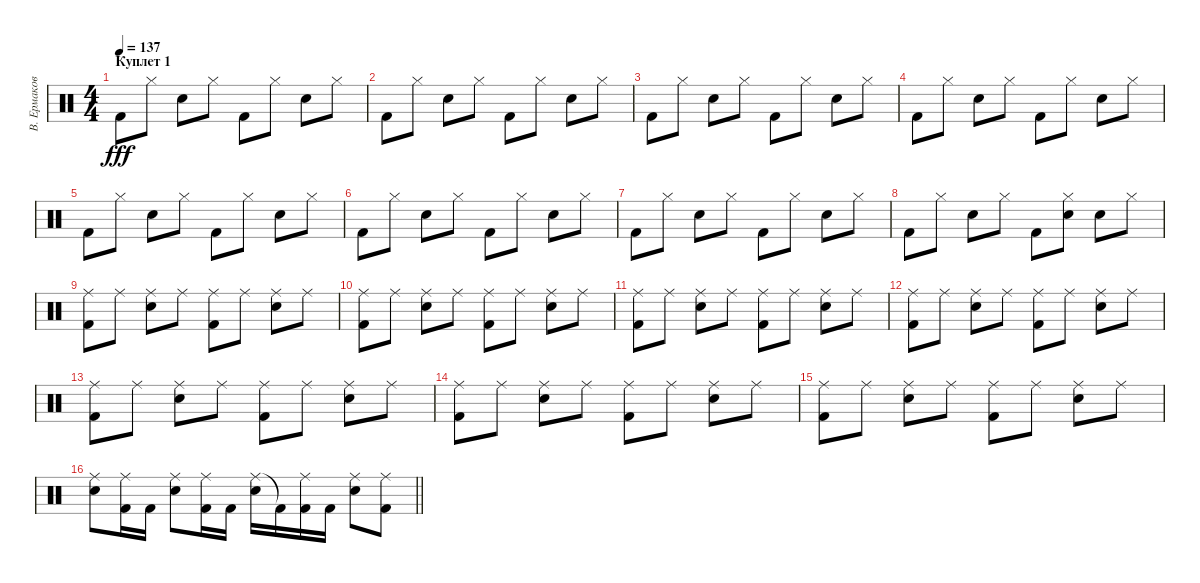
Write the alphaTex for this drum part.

\track ("В. Ермаков" "В. Ермаков") {instrument percussion}
\staff {score}
\articulation defaults
\ts (4 4)
\section ("" "Куплет 1")
\tempo 137
\clef neutral
\ks c "Kick (hit) 2".8{dy fff} "Hi-Hat (closed)".8 "Snare (hit) 2".8 "Hi-Hat (closed)".8 "Kick (hit) 2".8 "Hi-Hat (closed)".8 "Snare (hit) 2".8 "Hi-Hat (closed)".8
|
"Kick (hit) 2".8 "Hi-Hat (closed)".8 "Snare (hit) 2".8 "Hi-Hat (closed)".8 "Kick (hit) 2".8 "Hi-Hat (closed)".8 "Snare (hit) 2".8 "Hi-Hat (closed)".8 |
"Kick (hit) 2".8 "Hi-Hat (closed)".8 "Snare (hit) 2".8 "Hi-Hat (closed)".8 "Kick (hit) 2".8 "Hi-Hat (closed)".8 "Snare (hit) 2".8 "Hi-Hat (closed)".8 |
"Kick (hit) 2".8 "Hi-Hat (closed)".8 "Snare (hit) 2".8 "Hi-Hat (closed)".8 "Kick (hit) 2".8 "Hi-Hat (closed)".8 "Snare (hit) 2".8 "Hi-Hat (closed)".8 |
"Kick (hit) 2".8 "Hi-Hat (closed)".8 "Snare (hit) 2".8 "Hi-Hat (closed)".8 "Kick (hit) 2".8 "Hi-Hat (closed)".8 "Snare (hit) 2".8 "Hi-Hat (closed)".8 |
"Kick (hit) 2".8 "Hi-Hat (closed)".8 "Snare (hit) 2".8 "Hi-Hat (closed)".8 "Kick (hit) 2".8 "Hi-Hat (closed)".8 "Snare (hit) 2".8 "Hi-Hat (closed)".8 |
"Kick (hit) 2".8 "Hi-Hat (closed)".8 "Snare (hit) 2".8 "Hi-Hat (closed)".8 "Kick (hit) 2".8 "Hi-Hat (closed)".8 "Snare (hit) 2".8 "Hi-Hat (closed)".8 |
"Kick (hit) 2".8 "Hi-Hat (closed)".8 "Snare (hit) 2".8 "Hi-Hat (closed)".8 "Kick (hit) 2".8 ("Hi-Hat (closed)" "Snare (hit) 2").8 "Snare (hit) 2".8 "Hi-Hat (closed)".8 |
("Ride (middle)" "Kick (hit) 2").8 "Ride (middle)".8 ("Ride (middle)" "Snare (hit) 2").8 "Ride (middle)".8 ("Ride (middle)" "Kick (hit) 2").8 "Ride (middle)".8 ("Ride (middle)" "Snare (hit) 2").8 "Ride (middle)".8 |
("Ride (middle)" "Kick (hit) 2").8 "Ride (middle)".8 ("Ride (middle)" "Snare (hit) 2").8 "Ride (middle)".8 ("Ride (middle)" "Kick (hit) 2").8 "Ride (middle)".8 ("Ride (middle)" "Snare (hit) 2").8 "Ride (middle)".8 |
("Ride (middle)" "Kick (hit) 2").8 "Ride (middle)".8 ("Ride (middle)" "Snare (hit) 2").8 "Ride (middle)".8 ("Ride (middle)" "Kick (hit) 2").8 "Ride (middle)".8 ("Ride (middle)" "Snare (hit) 2").8 "Ride (middle)".8 |
("Ride (middle)" "Kick (hit) 2").8 "Ride (middle)".8 ("Ride (middle)" "Snare (hit) 2").8 "Ride (middle)".8 ("Ride (middle)" "Kick (hit) 2").8 "Ride (middle)".8 ("Ride (middle)" "Snare (hit) 2").8 "Ride (middle)".8 |
("Ride (middle)" "Kick (hit) 2").8 "Ride (middle)".8 ("Ride (middle)" "Snare (hit) 2").8 "Ride (middle)".8 ("Ride (middle)" "Kick (hit) 2").8 "Ride (middle)".8 ("Ride (middle)" "Snare (hit) 2").8 "Ride (middle)".8 |
("Ride (middle)" "Kick (hit) 2").8 "Ride (middle)".8 ("Ride (middle)" "Snare (hit) 2").8 "Ride (middle)".8 ("Ride (middle)" "Kick (hit) 2").8 "Ride (middle)".8 ("Ride (middle)" "Snare (hit) 2").8 "Ride (middle)".8 |
("Ride (middle)" "Kick (hit) 2").8 "Ride (middle)".8 ("Ride (middle)" "Snare (hit) 2").8 "Ride (middle)".8 ("Ride (middle)" "Kick (hit) 2").8 "Ride (middle)".8 ("Ride (middle)" "Snare (hit) 2").8 "Ride (middle)".8 |
\barLineRight lightlight
("Ride (middle)" "Snare (hit) 2").8 ("Ride (middle)" "Kick (hit) 2").16 "Kick (hit) 2".16 ("Ride (middle)" "Snare (hit) 2").8 ("Ride (middle)" "Kick (hit) 2").16 "Kick (hit) 2".16 ("Ride (middle)" "Snare (hit) 2").16 "Kick (hit) 2"{t}.16 ("Ride (middle)" "Kick (hit) 2").16 "Kick (hit) 2".16 ("Ride (middle)" "Snare (hit) 2").8 ("Ride (middle)" "Kick (hit) 2").8
